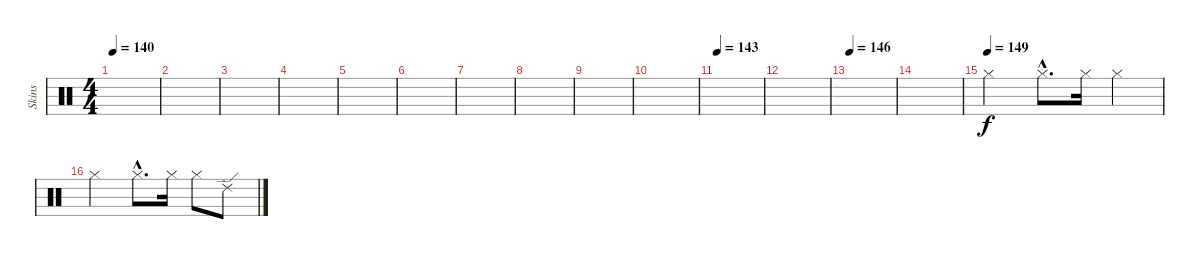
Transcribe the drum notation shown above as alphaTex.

\track ("Skins" "Skins") {instrument percussion}
\staff {score}
\articulation defaults
\ts (4 4)
\tempo 140
\clef neutral
\ks c
|
|
|
|
|
|
|
|
|
|
\tempo 143
|
|
\tempo 146
|
|
\tempo (149)
"Hi-Hat (closed)".2 "Hi-Hat (closed)"{hac}.8{d} "Hi-Hat (closed)".16 "Hi-Hat (closed)".4 |
"Hi-Hat (closed)".2 "Hi-Hat (closed)"{hac}.8{d} "Hi-Hat (closed)".16 "Hi-Hat (closed)".8 "Ride (edge) 2".8
